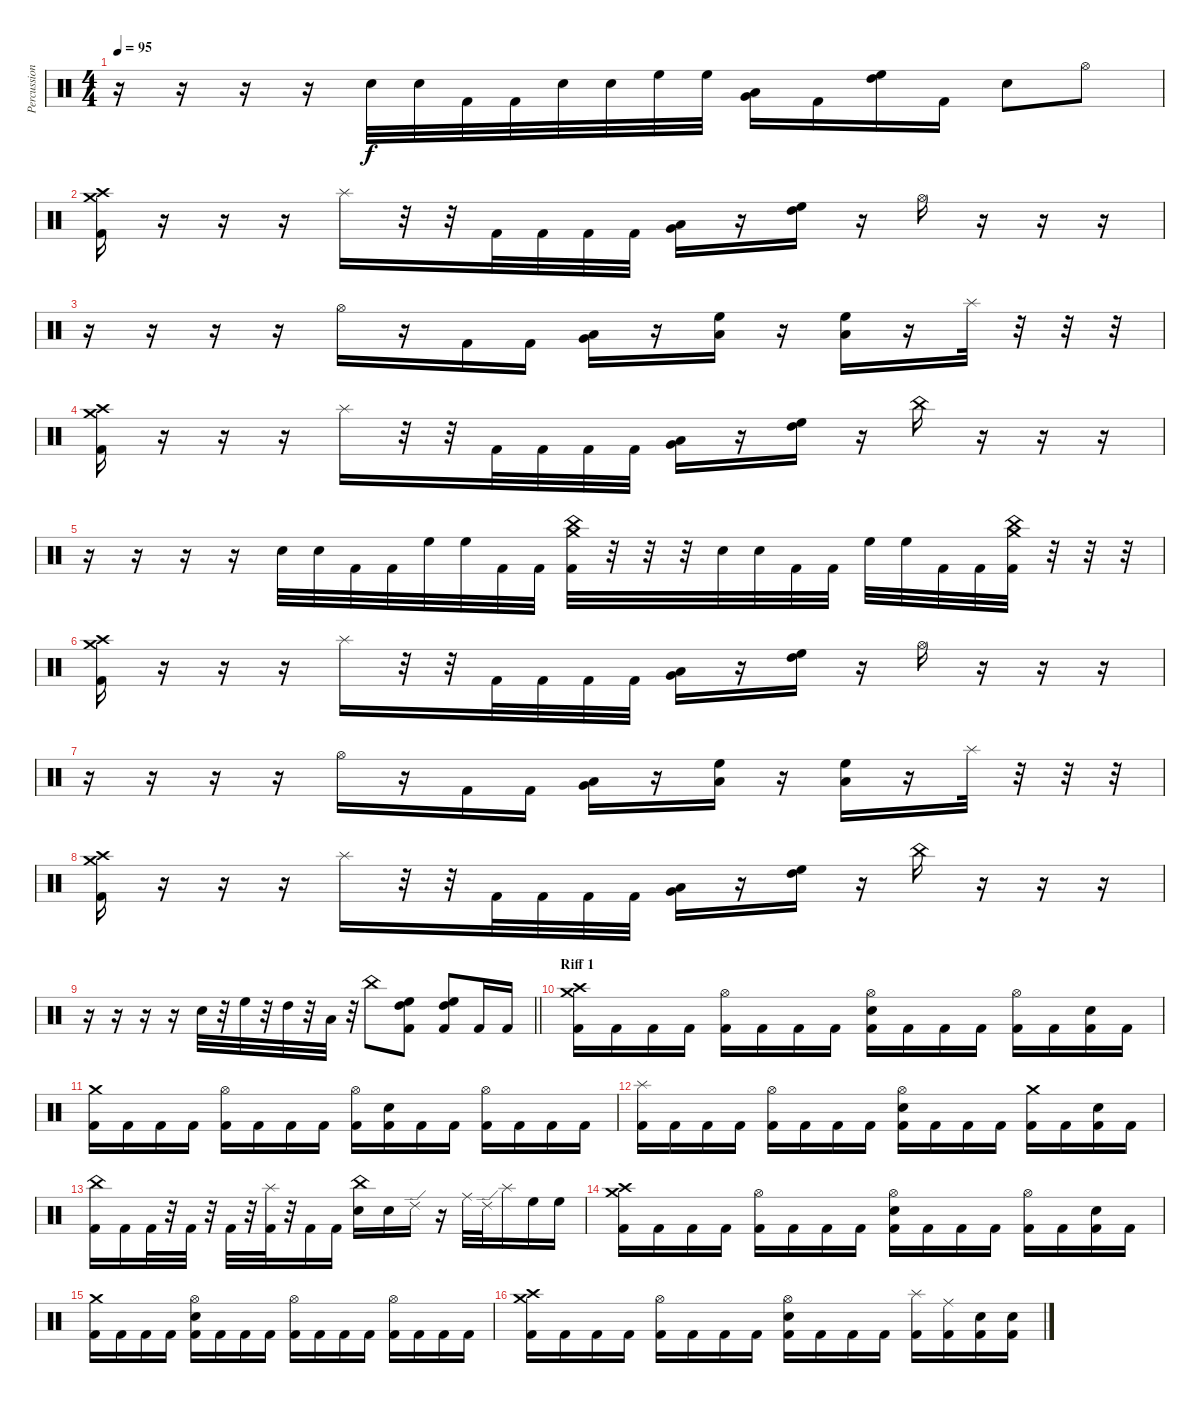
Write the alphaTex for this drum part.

\track ("Percussion" "Percussion") {instrument percussion}
\staff {score}
\articulation defaults
\ts (4 4)
\tempo 95
\clef neutral
\ks c
r.16{dy f} r.16 r.16 r.16 "Electric Snare (hit)".32 "Electric Snare (hit)".32 "Kick (hit) 2".32 "Kick (hit) 2".32 "Electric Snare (hit)".32 "Electric Snare (hit)".32 "High Floor Tom (hit)".32 "High Floor Tom (hit)".32 ("Very Low Tom (hit)" "Low Tom (hit)").16 "Kick (hit) 2".16 ("High Floor Tom (hit)" "High Tom (hit)").16 "Kick (hit) 2".16 "Electric Snare (hit)".8 "Hi-Hat (open)".8 |
("Crash medium (hit)" "Crash high (hit)" "Kick (hit) 2").16 r.16 r.16 r.16 "Splash (hit)".16 r.32 r.32 "Kick (hit) 2".32 "Kick (hit) 2".32 "Kick (hit) 2".32 "Kick (hit) 2".32 ("Very Low Tom (hit)" "Low Tom (hit)").16 r.16 ("High Tom (hit)" "High Floor Tom (hit)").16 r.16 "Hi-Hat (open)".16 r.16 r.16 r.16 |
r.16 r.16 r.16 r.16 "Hi-Hat (open)".16 r.16 "Kick (hit) 2".16 "Kick (hit) 2".16 ("Very Low Tom (hit)" "Low Tom (hit)").16 r.16 ("High Floor Tom (hit)" "Low Tom (hit)").16 r.16 ("High Floor Tom (hit)" "Low Tom (hit)").16 r.16 "Splash (hit)".32 r.32 r.32 r.32 |
("Crash medium (hit)" "Crash high (hit)" "Kick (hit) 2").16 r.16 r.16 r.16 "Splash (hit)".16 r.32 r.32 "Kick (hit) 2".32 "Kick (hit) 2".32 "Kick (hit) 2".32 "Kick (hit) 2".32 ("Very Low Tom (hit)" "Low Tom (hit)").16 r.16 ("High Tom (hit)" "High Floor Tom (hit)").16 r.16 "China (hit)".16 r.16 r.16 r.16 |
r.16 r.16 r.16 r.16 "Electric Snare (hit)".32 "Electric Snare (hit)".32 "Kick (hit) 2".32 "Kick (hit) 2".32 "High Floor Tom (hit)".32 "High Floor Tom (hit)".32 "Kick (hit) 2".32 "Kick (hit) 2".32 ("China (hit)" "Crash medium (hit)" "Kick (hit) 2").32 r.32 r.32 r.32 "Electric Snare (hit)".32 "Electric Snare (hit)".32 "Kick (hit) 2".32 "Kick (hit) 2".32 "High Floor Tom (hit)".32 "High Floor Tom (hit)".32 "Kick (hit) 2".32 "Kick (hit) 2".32 ("China (hit)" "Crash medium (hit)" "Kick (hit) 2").32 r.32 r.32 r.32 |
("Crash medium (hit)" "Crash high (hit)" "Kick (hit) 2").16 r.16 r.16 r.16 "Splash (hit)".16 r.32 r.32 "Kick (hit) 2".32 "Kick (hit) 2".32 "Kick (hit) 2".32 "Kick (hit) 2".32 ("Very Low Tom (hit)" "Low Tom (hit)").16 r.16 ("High Tom (hit)" "High Floor Tom (hit)").16 r.16 "Hi-Hat (open)".16 r.16 r.16 r.16 |
r.16 r.16 r.16 r.16 "Hi-Hat (open)".16 r.16 "Kick (hit) 2".16 "Kick (hit) 2".16 ("Very Low Tom (hit)" "Low Tom (hit)").16 r.16 ("High Floor Tom (hit)" "Low Tom (hit)").16 r.16 ("High Floor Tom (hit)" "Low Tom (hit)").16 r.16 "Splash (hit)".32 r.32 r.32 r.32 |
("Crash medium (hit)" "Crash high (hit)" "Kick (hit) 2").16 r.16 r.16 r.16 "Splash (hit)".16 r.32 r.32 "Kick (hit) 2".32 "Kick (hit) 2".32 "Kick (hit) 2".32 "Kick (hit) 2".32 ("Very Low Tom (hit)" "Low Tom (hit)").16 r.16 ("High Tom (hit)" "High Floor Tom (hit)").16 r.16 "China (hit)".16 r.16 r.16 r.16 |
\barLineRight lightlight
r.16 r.16 r.16 r.16 "Electric Snare (hit)".32 r.32 "High Floor Tom (hit)".32 r.32 "High Tom (hit)".32 r.32 "Low Tom (hit)".32 r.32 "China (hit)".8 ("High Floor Tom (hit)" "High Tom (hit)" "Kick (hit) 2").8 ("High Tom (hit)" "High Floor Tom (hit)" "Kick (hit) 2").8 "Kick (hit) 2".16 "Kick (hit) 2".16 |
\section ("" "Riff 1")
("Crash high (hit)" "Crash medium (hit)" "Kick (hit) 2").16 "Kick (hit) 2".16 "Kick (hit) 2".16 "Kick (hit) 2".16 ("Hi-Hat (open)" "Kick (hit) 2").16 "Kick (hit) 2".16 "Kick (hit) 2".16 "Kick (hit) 2".16 ("Hi-Hat (open)" "Electric Snare (hit)" "Kick (hit) 2").16 "Kick (hit) 2".16 "Kick (hit) 2".16 "Kick (hit) 2".16 ("Hi-Hat (open)" "Kick (hit) 2").16 "Kick (hit) 2".16 ("Electric Snare (hit)" "Kick (hit) 2").16 "Kick (hit) 2".16 |
("Crash medium (hit)" "Kick (hit) 2").16 "Kick (hit) 2".16 "Kick (hit) 2".16 "Kick (hit) 2".16 ("Hi-Hat (open)" "Kick (hit) 2").16 "Kick (hit) 2".16 "Kick (hit) 2".16 "Kick (hit) 2".16 ("Hi-Hat (open)" "Kick (hit) 2").16 ("Electric Snare (hit)" "Kick (hit) 2").16 "Kick (hit) 2".16 "Kick (hit) 2".16 ("Hi-Hat (open)" "Kick (hit) 2").16 "Kick (hit) 2".16 "Kick (hit) 2".16 "Kick (hit) 2".16 |
("Splash (hit)" "Kick (hit) 2").16 "Kick (hit) 2".16 "Kick (hit) 2".16 "Kick (hit) 2".16 ("Hi-Hat (open)" "Kick (hit) 2").16 "Kick (hit) 2".16 "Kick (hit) 2".16 "Kick (hit) 2".16 ("Hi-Hat (open)" "Electric Snare (hit)" "Kick (hit) 2").16 "Kick (hit) 2".16 "Kick (hit) 2".16 "Kick (hit) 2".16 ("Crash medium (hit)" "Kick (hit) 2").16 "Kick (hit) 2".16 ("Electric Snare (hit)" "Kick (hit) 2").16 "Kick (hit) 2".16 |
("China (hit)" "Kick (hit) 2").16 "Kick (hit) 2".16 "Kick (hit) 2".32 r.32 "Kick (hit) 2".32 r.32 "Kick (hit) 2".32 r.32 ("Splash (hit)" "Kick (hit) 2").32 r.32 "Kick (hit) 2".16 "Kick (hit) 2".16 ("China (hit)" "Electric Snare (hit)").16 "Electric Snare (hit)".16 "Ride (edge) 2".16 r.16 "Ride (middle)".32 "Ride (edge) 2".32 "Splash (hit)".16 "High Floor Tom (hit)".16 "High Floor Tom (hit)".16 |
("Crash high (hit)" "Crash medium (hit)" "Kick (hit) 2").16 "Kick (hit) 2".16 "Kick (hit) 2".16 "Kick (hit) 2".16 ("Hi-Hat (open)" "Kick (hit) 2").16 "Kick (hit) 2".16 "Kick (hit) 2".16 "Kick (hit) 2".16 ("Hi-Hat (open)" "Electric Snare (hit)" "Kick (hit) 2").16 "Kick (hit) 2".16 "Kick (hit) 2".16 "Kick (hit) 2".16 ("Hi-Hat (open)" "Kick (hit) 2").16 "Kick (hit) 2".16 ("Electric Snare (hit)" "Kick (hit) 2").16 "Kick (hit) 2".16 |
("Crash medium (hit)" "Kick (hit) 2").16 "Kick (hit) 2".16 "Kick (hit) 2".16 "Kick (hit) 2".16 ("Hi-Hat (open)" "Electric Snare (hit)" "Kick (hit) 2").16 "Kick (hit) 2".16 "Kick (hit) 2".16 "Kick (hit) 2".16 ("Hi-Hat (open)" "Kick (hit) 2").16 "Kick (hit) 2".16 "Kick (hit) 2".16 "Kick (hit) 2".16 ("Hi-Hat (open)" "Kick (hit) 2").16 "Kick (hit) 2".16 "Kick (hit) 2".16 "Kick (hit) 2".16 |
("Crash high (hit)" "Crash medium (hit)" "Kick (hit) 2").16 "Kick (hit) 2".16 "Kick (hit) 2".16 "Kick (hit) 2".16 ("Hi-Hat (open)" "Kick (hit) 2").16 "Kick (hit) 2".16 "Kick (hit) 2".16 "Kick (hit) 2".16 ("Hi-Hat (open)" "Electric Snare (hit)" "Kick (hit) 2").16 "Kick (hit) 2".16 "Kick (hit) 2".16 "Kick (hit) 2".16 ("Splash (hit)" "Kick (hit) 2").16 ("Ride (middle)" "Kick (hit) 2").16 ("Electric Snare (hit)" "Kick (hit) 2").16 ("Electric Snare (hit)" "Kick (hit) 2").16
